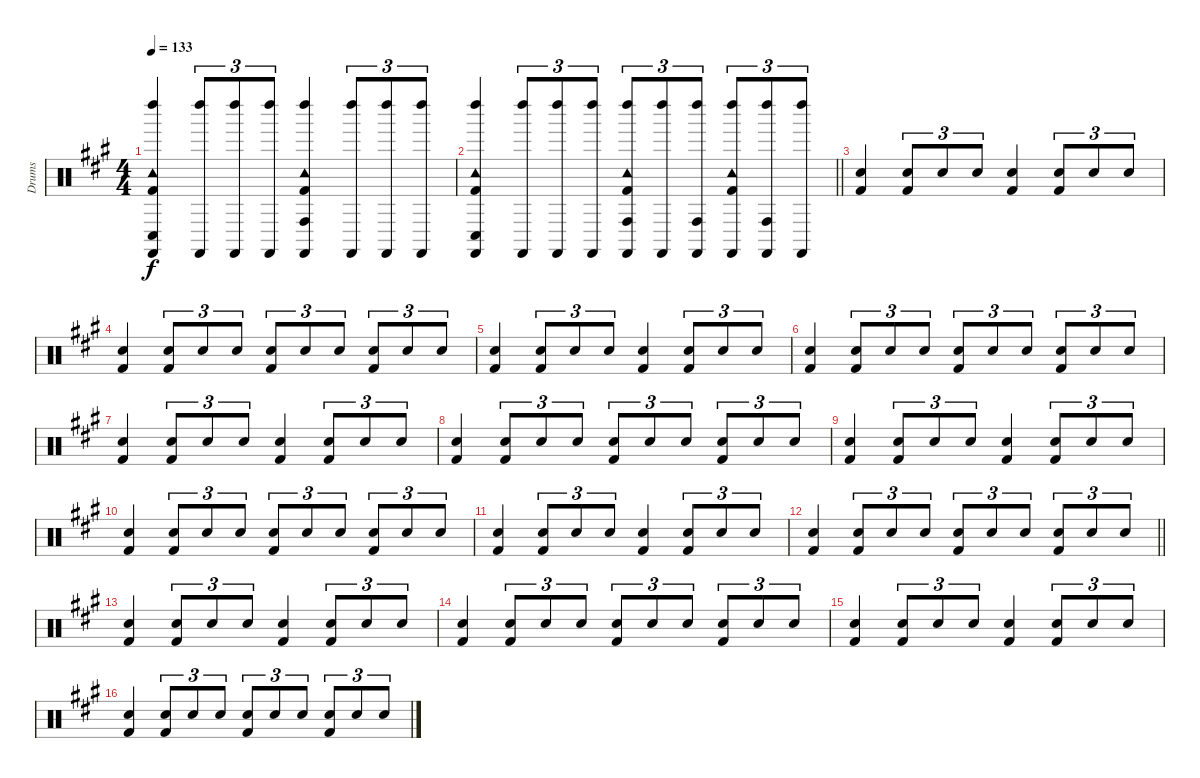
\track ("Drums" "Drums") {instrument percussion}
\staff {score}
\articulation defaults
\ts (4 4)
\tempo 133
\clef neutral
\ks a
("Tambourine (hit)" "Castanets (hit)" "Left Maraca (hit)" "Conga low (hit)" "Kick (hit) 2").4{dy f} ("Castanets (hit)" "Left Maraca (hit)").8{tu (3 2)} ("Castanets (hit)" "Left Maraca (hit)").8{tu (3 2)} ("Castanets (hit)" "Left Maraca (hit)").8{tu (3 2)} ("Tambourine (hit)" "Castanets (hit)" "Left Maraca (hit)" "Conga high (hit)" "Kick (hit) 2").4 ("Castanets (hit)" "Left Maraca (hit)").8{tu (3 2)} ("Castanets (hit)" "Left Maraca (hit)").8{tu (3 2)} ("Castanets (hit)" "Left Maraca (hit)").8{tu (3 2)} |
\barLineRight lightlight
("Tambourine (hit)" "Castanets (hit)" "Left Maraca (hit)" "Conga low (hit)" "Kick (hit) 2").4 ("Castanets (hit)" "Left Maraca (hit)").8{tu (3 2)} ("Castanets (hit)" "Left Maraca (hit)").8{tu (3 2)} ("Castanets (hit)" "Left Maraca (hit)").8{tu (3 2)} ("Tambourine (hit)" "Castanets (hit)" "Left Maraca (hit)" "Conga high (hit)" "Kick (hit) 2").8{tu (3 2)} ("Castanets (hit)" "Left Maraca (hit)").8{tu (3 2)} ("Castanets (hit)" "Left Maraca (hit)" "Conga high (hit)").8{tu (3 2)} ("Tambourine (hit)" "Castanets (hit)" "Left Maraca (hit)" "Kick (hit) 2").8{tu (3 2)} ("Castanets (hit)" "Left Maraca (hit)" "Conga high (hit)").8{tu (3 2)} ("Castanets (hit)" "Left Maraca (hit)").8{tu (3 2)} |
("Snare (hit) 2" "Kick (hit) 2").4 ("Snare (hit) 2" "Kick (hit) 2").8{tu (3 2)} "Snare (hit) 2".8{tu (3 2)} "Snare (hit) 2".8{tu (3 2)} ("Snare (hit) 2" "Kick (hit) 2").4 ("Snare (hit) 2" "Kick (hit) 2").8{tu (3 2)} "Snare (hit) 2".8{tu (3 2)} "Snare (hit) 2".8{tu (3 2)} |
("Snare (hit) 2" "Kick (hit) 2").4 ("Snare (hit) 2" "Kick (hit) 2").8{tu (3 2)} "Snare (hit) 2".8{tu (3 2)} "Snare (hit) 2".8{tu (3 2)} ("Snare (hit) 2" "Kick (hit) 2").8{tu (3 2)} "Snare (hit) 2".8{tu (3 2)} "Snare (hit) 2".8{tu (3 2)} ("Snare (hit) 2" "Kick (hit) 2").8{tu (3 2)} "Snare (hit) 2".8{tu (3 2)} "Snare (hit) 2".8{tu (3 2)} |
("Snare (hit) 2" "Kick (hit) 2").4 ("Snare (hit) 2" "Kick (hit) 2").8{tu (3 2)} "Snare (hit) 2".8{tu (3 2)} "Snare (hit) 2".8{tu (3 2)} ("Snare (hit) 2" "Kick (hit) 2").4 ("Snare (hit) 2" "Kick (hit) 2").8{tu (3 2)} "Snare (hit) 2".8{tu (3 2)} "Snare (hit) 2".8{tu (3 2)} |
("Snare (hit) 2" "Kick (hit) 2").4 ("Snare (hit) 2" "Kick (hit) 2").8{tu (3 2)} "Snare (hit) 2".8{tu (3 2)} "Snare (hit) 2".8{tu (3 2)} ("Snare (hit) 2" "Kick (hit) 2").8{tu (3 2)} "Snare (hit) 2".8{tu (3 2)} "Snare (hit) 2".8{tu (3 2)} ("Snare (hit) 2" "Kick (hit) 2").8{tu (3 2)} "Snare (hit) 2".8{tu (3 2)} "Snare (hit) 2".8{tu (3 2)} |
("Snare (hit) 2" "Kick (hit) 2").4 ("Snare (hit) 2" "Kick (hit) 2").8{tu (3 2)} "Snare (hit) 2".8{tu (3 2)} "Snare (hit) 2".8{tu (3 2)} ("Snare (hit) 2" "Kick (hit) 2").4 ("Snare (hit) 2" "Kick (hit) 2").8{tu (3 2)} "Snare (hit) 2".8{tu (3 2)} "Snare (hit) 2".8{tu (3 2)} |
("Snare (hit) 2" "Kick (hit) 2").4 ("Snare (hit) 2" "Kick (hit) 2").8{tu (3 2)} "Snare (hit) 2".8{tu (3 2)} "Snare (hit) 2".8{tu (3 2)} ("Snare (hit) 2" "Kick (hit) 2").8{tu (3 2)} "Snare (hit) 2".8{tu (3 2)} "Snare (hit) 2".8{tu (3 2)} ("Snare (hit) 2" "Kick (hit) 2").8{tu (3 2)} "Snare (hit) 2".8{tu (3 2)} "Snare (hit) 2".8{tu (3 2)} |
("Snare (hit) 2" "Kick (hit) 2").4 ("Snare (hit) 2" "Kick (hit) 2").8{tu (3 2)} "Snare (hit) 2".8{tu (3 2)} "Snare (hit) 2".8{tu (3 2)} ("Snare (hit) 2" "Kick (hit) 2").4 ("Snare (hit) 2" "Kick (hit) 2").8{tu (3 2)} "Snare (hit) 2".8{tu (3 2)} "Snare (hit) 2".8{tu (3 2)} |
("Snare (hit) 2" "Kick (hit) 2").4 ("Snare (hit) 2" "Kick (hit) 2").8{tu (3 2)} "Snare (hit) 2".8{tu (3 2)} "Snare (hit) 2".8{tu (3 2)} ("Snare (hit) 2" "Kick (hit) 2").8{tu (3 2)} "Snare (hit) 2".8{tu (3 2)} "Snare (hit) 2".8{tu (3 2)} ("Snare (hit) 2" "Kick (hit) 2").8{tu (3 2)} "Snare (hit) 2".8{tu (3 2)} "Snare (hit) 2".8{tu (3 2)} |
("Snare (hit) 2" "Kick (hit) 2").4 ("Snare (hit) 2" "Kick (hit) 2").8{tu (3 2)} "Snare (hit) 2".8{tu (3 2)} "Snare (hit) 2".8{tu (3 2)} ("Snare (hit) 2" "Kick (hit) 2").4 ("Snare (hit) 2" "Kick (hit) 2").8{tu (3 2)} "Snare (hit) 2".8{tu (3 2)} "Snare (hit) 2".8{tu (3 2)} |
\barLineRight lightlight
("Snare (hit) 2" "Kick (hit) 2").4 ("Snare (hit) 2" "Kick (hit) 2").8{tu (3 2)} "Snare (hit) 2".8{tu (3 2)} "Snare (hit) 2".8{tu (3 2)} ("Snare (hit) 2" "Kick (hit) 2").8{tu (3 2)} "Snare (hit) 2".8{tu (3 2)} "Snare (hit) 2".8{tu (3 2)} ("Snare (hit) 2" "Kick (hit) 2").8{tu (3 2)} "Snare (hit) 2".8{tu (3 2)} "Snare (hit) 2".8{tu (3 2)} |
("Snare (hit) 2" "Kick (hit) 2").4 ("Snare (hit) 2" "Kick (hit) 2").8{tu (3 2)} "Snare (hit) 2".8{tu (3 2)} "Snare (hit) 2".8{tu (3 2)} ("Snare (hit) 2" "Kick (hit) 2").4 ("Snare (hit) 2" "Kick (hit) 2").8{tu (3 2)} "Snare (hit) 2".8{tu (3 2)} "Snare (hit) 2".8{tu (3 2)} |
("Snare (hit) 2" "Kick (hit) 2").4 ("Snare (hit) 2" "Kick (hit) 2").8{tu (3 2)} "Snare (hit) 2".8{tu (3 2)} "Snare (hit) 2".8{tu (3 2)} ("Snare (hit) 2" "Kick (hit) 2").8{tu (3 2)} "Snare (hit) 2".8{tu (3 2)} "Snare (hit) 2".8{tu (3 2)} ("Snare (hit) 2" "Kick (hit) 2").8{tu (3 2)} "Snare (hit) 2".8{tu (3 2)} "Snare (hit) 2".8{tu (3 2)} |
("Snare (hit) 2" "Kick (hit) 2").4 ("Snare (hit) 2" "Kick (hit) 2").8{tu (3 2)} "Snare (hit) 2".8{tu (3 2)} "Snare (hit) 2".8{tu (3 2)} ("Snare (hit) 2" "Kick (hit) 2").4 ("Snare (hit) 2" "Kick (hit) 2").8{tu (3 2)} "Snare (hit) 2".8{tu (3 2)} "Snare (hit) 2".8{tu (3 2)} |
("Snare (hit) 2" "Kick (hit) 2").4 ("Snare (hit) 2" "Kick (hit) 2").8{tu (3 2)} "Snare (hit) 2".8{tu (3 2)} "Snare (hit) 2".8{tu (3 2)} ("Snare (hit) 2" "Kick (hit) 2").8{tu (3 2)} "Snare (hit) 2".8{tu (3 2)} "Snare (hit) 2".8{tu (3 2)} ("Snare (hit) 2" "Kick (hit) 2").8{tu (3 2)} "Snare (hit) 2".8{tu (3 2)} "Snare (hit) 2".8{tu (3 2)}
